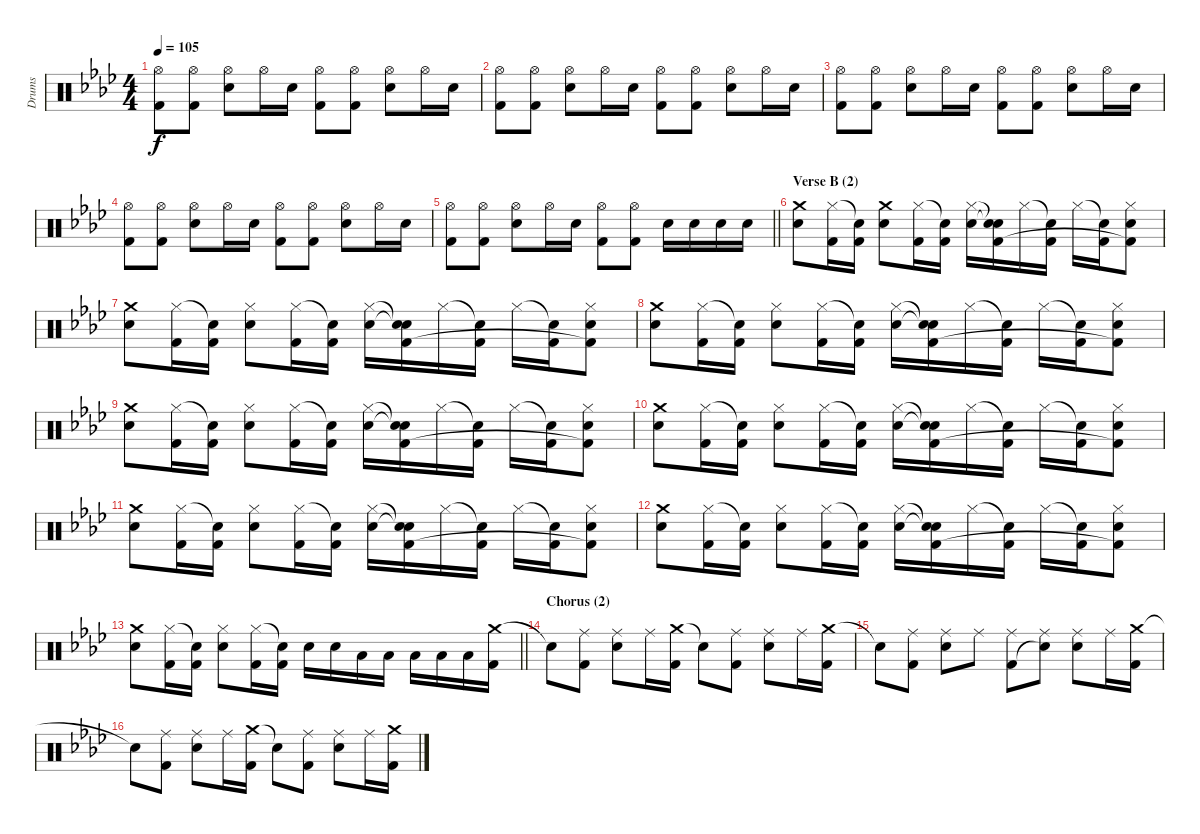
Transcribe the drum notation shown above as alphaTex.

\track ("Drums" "Drums") {instrument percussion}
\staff {score}
\articulation defaults
\ts (4 4)
\tempo 105
\clef neutral
\ks fminor
("Hi-Hat (open)" "Kick (hit) 2").8{dy f} ("Hi-Hat (open)" "Kick (hit) 2").8 ("Hi-Hat (open)" "Electric Snare (hit)").8 "Hi-Hat (open)".16 "Electric Snare (hit)".16 ("Hi-Hat (open)" "Kick (hit) 2").8 ("Hi-Hat (open)" "Kick (hit) 2").8 ("Hi-Hat (open)" "Electric Snare (hit)").8 "Hi-Hat (open)".16 "Electric Snare (hit)".16 |
("Hi-Hat (open)" "Kick (hit) 2").8 ("Hi-Hat (open)" "Kick (hit) 2").8 ("Hi-Hat (open)" "Electric Snare (hit)").8 "Hi-Hat (open)".16 "Electric Snare (hit)".16 ("Hi-Hat (open)" "Kick (hit) 2").8 ("Hi-Hat (open)" "Kick (hit) 2").8 ("Hi-Hat (open)" "Electric Snare (hit)").8 "Hi-Hat (open)".16 "Electric Snare (hit)".16 |
("Hi-Hat (open)" "Kick (hit) 2").8 ("Hi-Hat (open)" "Kick (hit) 2").8 ("Hi-Hat (open)" "Electric Snare (hit)").8 "Hi-Hat (open)".16 "Electric Snare (hit)".16 ("Hi-Hat (open)" "Kick (hit) 2").8 ("Hi-Hat (open)" "Kick (hit) 2").8 ("Hi-Hat (open)" "Electric Snare (hit)").8 "Hi-Hat (open)".16 "Electric Snare (hit)".16 |
("Hi-Hat (open)" "Kick (hit) 2").8 ("Hi-Hat (open)" "Kick (hit) 2").8 ("Hi-Hat (open)" "Electric Snare (hit)").8 "Hi-Hat (open)".16 "Electric Snare (hit)".16 ("Hi-Hat (open)" "Kick (hit) 2").8 ("Hi-Hat (open)" "Kick (hit) 2").8 ("Hi-Hat (open)" "Electric Snare (hit)").8 "Hi-Hat (open)".16 "Electric Snare (hit)".16 |
\barLineRight lightlight
("Hi-Hat (open)" "Kick (hit) 2").8 ("Hi-Hat (open)" "Kick (hit) 2").8 ("Hi-Hat (open)" "Electric Snare (hit)").8 "Hi-Hat (open)".16 "Electric Snare (hit)".16 ("Hi-Hat (open)" "Kick (hit) 2").8 ("Hi-Hat (open)" "Kick (hit) 2").8 "Electric Snare (hit)".16 "Electric Snare (hit)".16 "Electric Snare (hit)".16 "Electric Snare (hit)".16 |
\section ("" "Verse B (2)")
("Crash medium (hit)" "Electric Snare (hit)").8 ("Hi-Hat (closed)" "Kick (hit) 2").16 ("Snare (hit)"{t} "Kick (hit) 2").16 ("Crash medium (hit)" "Electric Snare (hit)").8 ("Hi-Hat (closed)" "Kick (hit) 2").16 ("Snare (hit)"{t} "Kick (hit) 2").16 ("Hi-Hat (closed)" "Electric Snare (hit)").16 ("Snare (hit)"{t} "Snare (hit)"{t} "Kick (hit) 2").16 "Hi-Hat (closed)".16 ("Snare (hit)"{t} "Kick (hit) 2").16 "Hi-Hat (closed)".16 ("Snare (hit)"{t} "Kick (hit) 2").16 ("Hi-Hat (closed)" "Electric Snare (hit)" "Kick (hit) 2"{t}).8 |
("Crash medium (hit)" "Electric Snare (hit)").8 ("Hi-Hat (closed)" "Kick (hit) 2").16 ("Snare (hit)"{t} "Kick (hit) 2").16 ("Hi-Hat (closed)" "Electric Snare (hit)").8 ("Hi-Hat (closed)" "Kick (hit) 2").16 ("Snare (hit)"{t} "Kick (hit) 2").16 ("Hi-Hat (closed)" "Electric Snare (hit)").16 ("Snare (hit)"{t} "Snare (hit)"{t} "Kick (hit) 2").16 "Hi-Hat (closed)".16 ("Snare (hit)"{t} "Kick (hit) 2").16 "Hi-Hat (closed)".16 ("Snare (hit)"{t} "Kick (hit) 2").16 ("Hi-Hat (closed)" "Electric Snare (hit)" "Kick (hit) 2"{t}).8 |
("Crash medium (hit)" "Electric Snare (hit)").8 ("Hi-Hat (closed)" "Kick (hit) 2").16 ("Snare (hit)"{t} "Kick (hit) 2").16 ("Hi-Hat (closed)" "Electric Snare (hit)").8 ("Hi-Hat (closed)" "Kick (hit) 2").16 ("Snare (hit)"{t} "Kick (hit) 2").16 ("Hi-Hat (closed)" "Electric Snare (hit)").16 ("Snare (hit)"{t} "Snare (hit)"{t} "Kick (hit) 2").16 "Hi-Hat (closed)".16 ("Snare (hit)"{t} "Kick (hit) 2").16 "Hi-Hat (closed)".16 ("Snare (hit)"{t} "Kick (hit) 2").16 ("Hi-Hat (closed)" "Electric Snare (hit)" "Kick (hit) 2"{t}).8 |
("Crash medium (hit)" "Electric Snare (hit)").8 ("Hi-Hat (closed)" "Kick (hit) 2").16 ("Snare (hit)"{t} "Kick (hit) 2").16 ("Hi-Hat (closed)" "Electric Snare (hit)").8 ("Hi-Hat (closed)" "Kick (hit) 2").16 ("Snare (hit)"{t} "Kick (hit) 2").16 ("Hi-Hat (closed)" "Electric Snare (hit)").16 ("Snare (hit)"{t} "Snare (hit)"{t} "Kick (hit) 2").16 "Hi-Hat (closed)".16 ("Snare (hit)"{t} "Kick (hit) 2").16 "Hi-Hat (closed)".16 ("Snare (hit)"{t} "Kick (hit) 2").16 ("Hi-Hat (closed)" "Electric Snare (hit)" "Kick (hit) 2"{t}).8 |
("Crash medium (hit)" "Electric Snare (hit)").8 ("Hi-Hat (closed)" "Kick (hit) 2").16 ("Snare (hit)"{t} "Kick (hit) 2").16 ("Hi-Hat (closed)" "Electric Snare (hit)").8 ("Hi-Hat (closed)" "Kick (hit) 2").16 ("Snare (hit)"{t} "Kick (hit) 2").16 ("Hi-Hat (closed)" "Electric Snare (hit)").16 ("Snare (hit)"{t} "Snare (hit)"{t} "Kick (hit) 2").16 "Hi-Hat (closed)".16 ("Snare (hit)"{t} "Kick (hit) 2").16 "Hi-Hat (closed)".16 ("Snare (hit)"{t} "Kick (hit) 2").16 ("Hi-Hat (closed)" "Electric Snare (hit)" "Kick (hit) 2"{t}).8 |
("Crash medium (hit)" "Electric Snare (hit)").8 ("Hi-Hat (closed)" "Kick (hit) 2").16 ("Snare (hit)"{t} "Kick (hit) 2").16 ("Hi-Hat (closed)" "Electric Snare (hit)").8 ("Hi-Hat (closed)" "Kick (hit) 2").16 ("Snare (hit)"{t} "Kick (hit) 2").16 ("Hi-Hat (closed)" "Electric Snare (hit)").16 ("Snare (hit)"{t} "Snare (hit)"{t} "Kick (hit) 2").16 "Hi-Hat (closed)".16 ("Snare (hit)"{t} "Kick (hit) 2").16 "Hi-Hat (closed)".16 ("Snare (hit)"{t} "Kick (hit) 2").16 ("Hi-Hat (closed)" "Electric Snare (hit)" "Kick (hit) 2"{t}).8 |
("Crash medium (hit)" "Electric Snare (hit)").8 ("Hi-Hat (closed)" "Kick (hit) 2").16 ("Snare (hit)"{t} "Kick (hit) 2").16 ("Hi-Hat (closed)" "Electric Snare (hit)").8 ("Hi-Hat (closed)" "Kick (hit) 2").16 ("Snare (hit)"{t} "Kick (hit) 2").16 ("Hi-Hat (closed)" "Electric Snare (hit)").16 ("Snare (hit)"{t} "Snare (hit)"{t} "Kick (hit) 2").16 "Hi-Hat (closed)".16 ("Snare (hit)"{t} "Kick (hit) 2").16 "Hi-Hat (closed)".16 ("Snare (hit)"{t} "Kick (hit) 2").16 ("Hi-Hat (closed)" "Electric Snare (hit)" "Kick (hit) 2"{t}).8 |
\barLineRight lightlight
("Crash medium (hit)" "Electric Snare (hit)").8 ("Hi-Hat (closed)" "Kick (hit) 2").16 ("Snare (hit)"{t} "Kick (hit) 2").16 ("Hi-Hat (closed)" "Electric Snare (hit)").8 ("Hi-Hat (closed)" "Kick (hit) 2").16 ("Snare (hit)"{t} "Kick (hit) 2").16 "Electric Snare (hit)".16 "Electric Snare (hit)".16 "Low Tom (hit)".16 "Low Tom (hit)".16 "Low Floor Tom (hit)".16 "Low Floor Tom (hit)".16 "Low Floor Tom (hit)".16 ("Crash medium (hit)" "Kick (hit) 2").16 |
\section ("" "Chorus (2)")
"Snare (hit)"{t}.8 ("Ride (middle)" "Kick (hit) 2").8 ("Ride (middle)" "Electric Snare (hit)").8 "Ride (middle)".16 ("Crash medium (hit)" "Kick (hit) 2").16 "Snare (hit)"{t}.8 ("Ride (middle)" "Kick (hit) 2").8 ("Ride (middle)" "Electric Snare (hit)").8 "Ride (middle)".16 ("Crash medium (hit)" "Kick (hit) 2").16 |
"Snare (hit)"{t}.8 ("Ride (middle)" "Kick (hit) 2").8 ("Ride (middle)" "Electric Snare (hit)").8 "Ride (middle)".8 ("Ride (middle)" "Kick (hit) 2").8 ("Ride (middle)" "Snare (hit)"{t}).8 ("Ride (middle)" "Electric Snare (hit)").8 "Ride (middle)".16 ("Crash medium (hit)" "Kick (hit) 2").16 |
"Snare (hit)"{t}.8 ("Ride (middle)" "Kick (hit) 2").8 ("Ride (middle)" "Electric Snare (hit)").8 "Ride (middle)".16 ("Crash medium (hit)" "Kick (hit) 2").16 "Snare (hit)"{t}.8 ("Ride (middle)" "Kick (hit) 2").8 ("Ride (middle)" "Electric Snare (hit)").8 "Ride (middle)".16 ("Crash medium (hit)" "Kick (hit) 2").16
